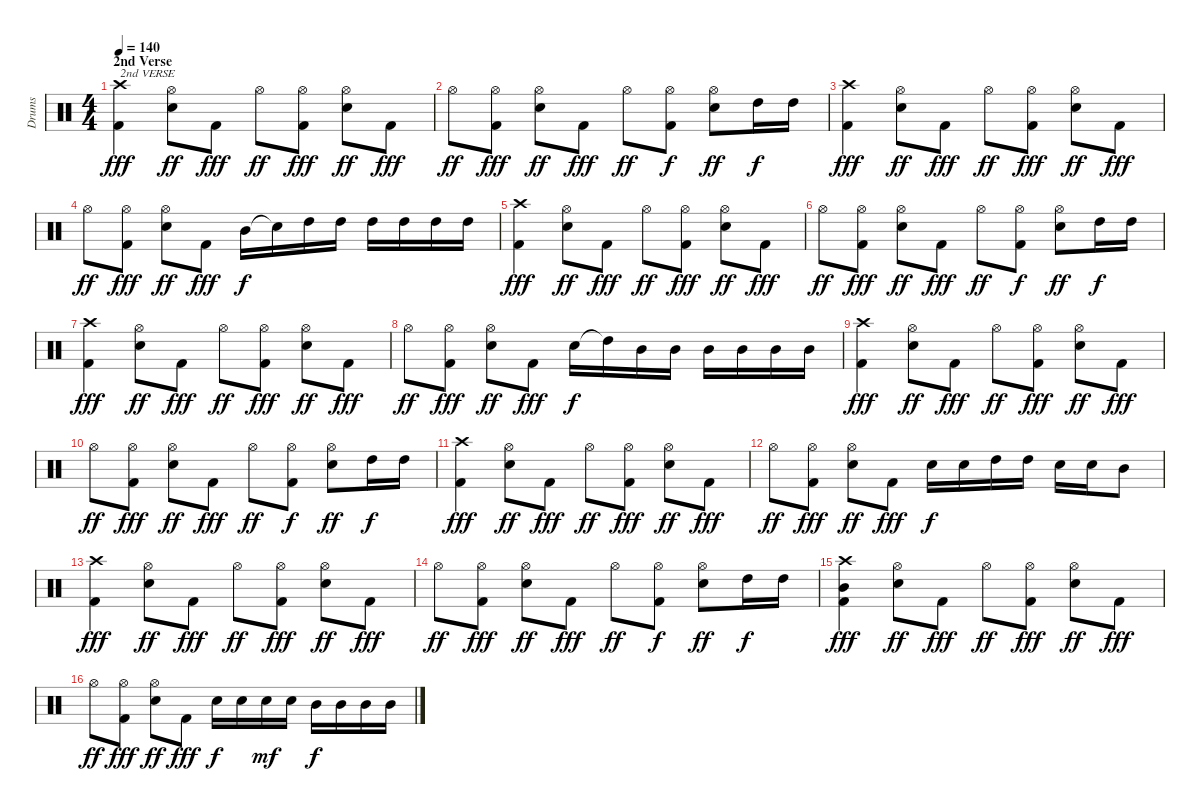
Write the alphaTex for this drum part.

\track ("Drums" "Drums") {instrument percussion}
\staff {score}
\articulation defaults
\ts (4 4)
\section ("" "2nd Verse")
\tempo 140
\clef neutral
\ks c
("Crash high (hit)" "Kick (hit) 2").4{txt "2nd VERSE" dy fff} ("Hi-Hat (open)" "Snare (hit) 2").8{dy ff} "Kick (hit) 2".8{dy fff} "Hi-Hat (open)".8{dy ff} ("Hi-Hat (open)" "Kick (hit) 2").8{dy fff} ("Hi-Hat (open)" "Snare (hit) 2").8{dy ff} "Kick (hit) 2".8{dy fff} |
"Hi-Hat (open)".8{dy ff} ("Hi-Hat (open)" "Kick (hit) 2").8{dy fff} ("Hi-Hat (open)" "Snare (hit) 2").8{dy ff} "Kick (hit) 2".8{dy fff} "Hi-Hat (open)".8{dy ff} ("Hi-Hat (open)" "Kick (hit) 2").8{dy f} ("Hi-Hat (open)" "Snare (hit) 2").8{dy ff} "High Tom (hit)".16{dy f} "High Tom (hit)".16 |
("Crash high (hit)" "Kick (hit) 2").4{dy fff} ("Hi-Hat (open)" "Snare (hit) 2").8{dy ff} "Kick (hit) 2".8{dy fff} "Hi-Hat (open)".8{dy ff} ("Hi-Hat (open)" "Kick (hit) 2").8{dy fff} ("Hi-Hat (open)" "Snare (hit) 2").8{dy ff} "Kick (hit) 2".8{dy fff} |
"Hi-Hat (open)".8{dy ff} ("Hi-Hat (open)" "Kick (hit) 2").8{dy fff} ("Hi-Hat (open)" "Snare (hit) 2").8{dy ff} "Kick (hit) 2".8{dy fff} "Mid Tom (hit)".16{dy f} "Snare (hit)"{t}.16 "High Tom (hit)".16 "High Tom (hit)".16 "High Tom (hit)".16 "High Tom (hit)".16 "High Tom (hit)".16 "High Tom (hit)".16 |
("Crash high (hit)" "Kick (hit) 2").4{dy fff} ("Hi-Hat (open)" "Snare (hit) 2").8{dy ff} "Kick (hit) 2".8{dy fff} "Hi-Hat (open)".8{dy ff} ("Hi-Hat (open)" "Kick (hit) 2").8{dy fff} ("Hi-Hat (open)" "Snare (hit) 2").8{dy ff} "Kick (hit) 2".8{dy fff} |
"Hi-Hat (open)".8{dy ff} ("Hi-Hat (open)" "Kick (hit) 2").8{dy fff} ("Hi-Hat (open)" "Snare (hit) 2").8{dy ff} "Kick (hit) 2".8{dy fff} "Hi-Hat (open)".8{dy ff} ("Hi-Hat (open)" "Kick (hit) 2").8{dy f} ("Hi-Hat (open)" "Snare (hit) 2").8{dy ff} "High Tom (hit)".16{dy f} "High Tom (hit)".16 |
("Crash high (hit)" "Kick (hit) 2").4{dy fff} ("Hi-Hat (open)" "Snare (hit) 2").8{dy ff} "Kick (hit) 2".8{dy fff} "Hi-Hat (open)".8{dy ff} ("Hi-Hat (open)" "Kick (hit) 2").8{dy fff} ("Hi-Hat (open)" "Snare (hit) 2").8{dy ff} "Kick (hit) 2".8{dy fff} |
"Hi-Hat (open)".8{dy ff} ("Hi-Hat (open)" "Kick (hit) 2").8{dy fff} ("Hi-Hat (open)" "Snare (hit) 2").8{dy ff} "Kick (hit) 2".8{dy fff} "Snare (hit) 2".16{dy f} "High Tom (hit)"{t}.16 "Mid Tom (hit)".16 "Mid Tom (hit)".16 "Mid Tom (hit)".16 "Mid Tom (hit)".16 "Mid Tom (hit)".16 "Mid Tom (hit)".16 |
("Crash high (hit)" "Kick (hit) 2").4{dy fff} ("Hi-Hat (open)" "Snare (hit) 2").8{dy ff} "Kick (hit) 2".8{dy fff} "Hi-Hat (open)".8{dy ff} ("Hi-Hat (open)" "Kick (hit) 2").8{dy fff} ("Hi-Hat (open)" "Snare (hit) 2").8{dy ff} "Kick (hit) 2".8{dy fff} |
"Hi-Hat (open)".8{dy ff} ("Hi-Hat (open)" "Kick (hit) 2").8{dy fff} ("Hi-Hat (open)" "Snare (hit) 2").8{dy ff} "Kick (hit) 2".8{dy fff} "Hi-Hat (open)".8{dy ff} ("Hi-Hat (open)" "Kick (hit) 2").8{dy f} ("Hi-Hat (open)" "Snare (hit) 2").8{dy ff} "High Tom (hit)".16{dy f} "High Tom (hit)".16 |
("Crash high (hit)" "Kick (hit) 2").4{dy fff} ("Hi-Hat (open)" "Snare (hit) 2").8{dy ff} "Kick (hit) 2".8{dy fff} "Hi-Hat (open)".8{dy ff} ("Hi-Hat (open)" "Kick (hit) 2").8{dy fff} ("Hi-Hat (open)" "Snare (hit) 2").8{dy ff} "Kick (hit) 2".8{dy fff} |
"Hi-Hat (open)".8{dy ff} ("Hi-Hat (open)" "Kick (hit) 2").8{dy fff} ("Hi-Hat (open)" "Snare (hit) 2").8{dy ff} "Kick (hit) 2".8{dy fff} "Snare (hit) 2".16{dy f} "Snare (hit) 2".16 "High Tom (hit)".16 "High Tom (hit)".16 "Snare (hit) 2".16 "Snare (hit) 2".16 "Mid Tom (hit)".8 |
("Crash high (hit)" "Kick (hit) 2").4{dy fff} ("Hi-Hat (open)" "Snare (hit) 2").8{dy ff} "Kick (hit) 2".8{dy fff} "Hi-Hat (open)".8{dy ff} ("Hi-Hat (open)" "Kick (hit) 2").8{dy fff} ("Hi-Hat (open)" "Snare (hit) 2").8{dy ff} "Kick (hit) 2".8{dy fff} |
"Hi-Hat (open)".8{dy ff} ("Hi-Hat (open)" "Kick (hit) 2").8{dy fff} ("Hi-Hat (open)" "Snare (hit) 2").8{dy ff} "Kick (hit) 2".8{dy fff} "Hi-Hat (open)".8{dy ff} ("Hi-Hat (open)" "Kick (hit) 2").8{dy f} ("Hi-Hat (open)" "Snare (hit) 2").8{dy ff} "High Tom (hit)".16{dy f} "High Tom (hit)".16 |
("Crash high (hit)" "Mid Tom (hit)" "Kick (hit) 2").4{dy fff} ("Hi-Hat (open)" "Snare (hit) 2").8{dy ff} "Kick (hit) 2".8{dy fff} "Hi-Hat (open)".8{dy ff} ("Hi-Hat (open)" "Kick (hit) 2").8{dy fff} ("Hi-Hat (open)" "Snare (hit) 2").8{dy ff} "Kick (hit) 2".8{dy fff} |
"Hi-Hat (open)".8{dy ff} ("Hi-Hat (open)" "Kick (hit) 2").8{dy fff} ("Hi-Hat (open)" "Snare (hit) 2").8{dy ff} "Kick (hit) 2".8{dy fff} "Snare (hit) 2".16{dy f} "Snare (hit) 2".16 "Snare (hit) 2".16{dy mf} "Snare (hit) 2".16 "Mid Tom (hit)".16{dy f} "Mid Tom (hit)".16 "Mid Tom (hit)".16 "Mid Tom (hit)".16
